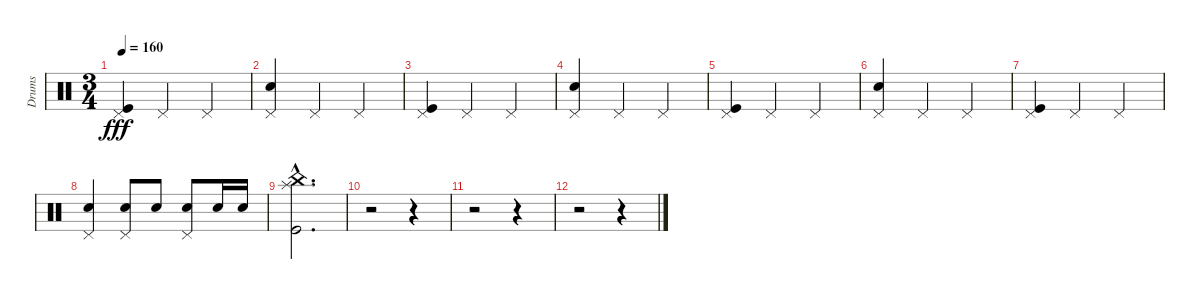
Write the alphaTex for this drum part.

\track ("Drums" "Drums") {instrument percussion}
\staff {score}
\articulation defaults
\ts (3 4)
\tempo 160
\clef neutral
\ks c
("Kick (hit)" "Pedal Hi-Hat (hit)").4{dy fff} "Pedal Hi-Hat (hit)".4 "Pedal Hi-Hat (hit)".4 |
("Electric Snare (hit)" "Pedal Hi-Hat (hit)").4 "Pedal Hi-Hat (hit)".4 "Pedal Hi-Hat (hit)".4 |
("Kick (hit)" "Pedal Hi-Hat (hit)").4 "Pedal Hi-Hat (hit)".4 "Pedal Hi-Hat (hit)".4 |
("Electric Snare (hit)" "Pedal Hi-Hat (hit)").4 "Pedal Hi-Hat (hit)".4 "Pedal Hi-Hat (hit)".4 |
("Kick (hit)" "Pedal Hi-Hat (hit)").4 "Pedal Hi-Hat (hit)".4 "Pedal Hi-Hat (hit)".4 |
("Electric Snare (hit)" "Pedal Hi-Hat (hit)").4 "Pedal Hi-Hat (hit)".4 "Pedal Hi-Hat (hit)".4 |
("Kick (hit)" "Pedal Hi-Hat (hit)").4 "Pedal Hi-Hat (hit)".4 "Pedal Hi-Hat (hit)".4 |
("Electric Snare (hit)" "Pedal Hi-Hat (hit)").4 ("Electric Snare (hit)" "Pedal Hi-Hat (hit)").8 "Electric Snare (hit)".8 ("Electric Snare (hit)" "Pedal Hi-Hat (hit)").8 "Electric Snare (hit)".16 "Electric Snare (hit)".16 |
("Kick (hit)"{hac} "Splash (hit)"{hac} "China (hit)"{hac}).2{d} |
r.2 r.4 |
r.2 r.4 |
r.2 r.4
